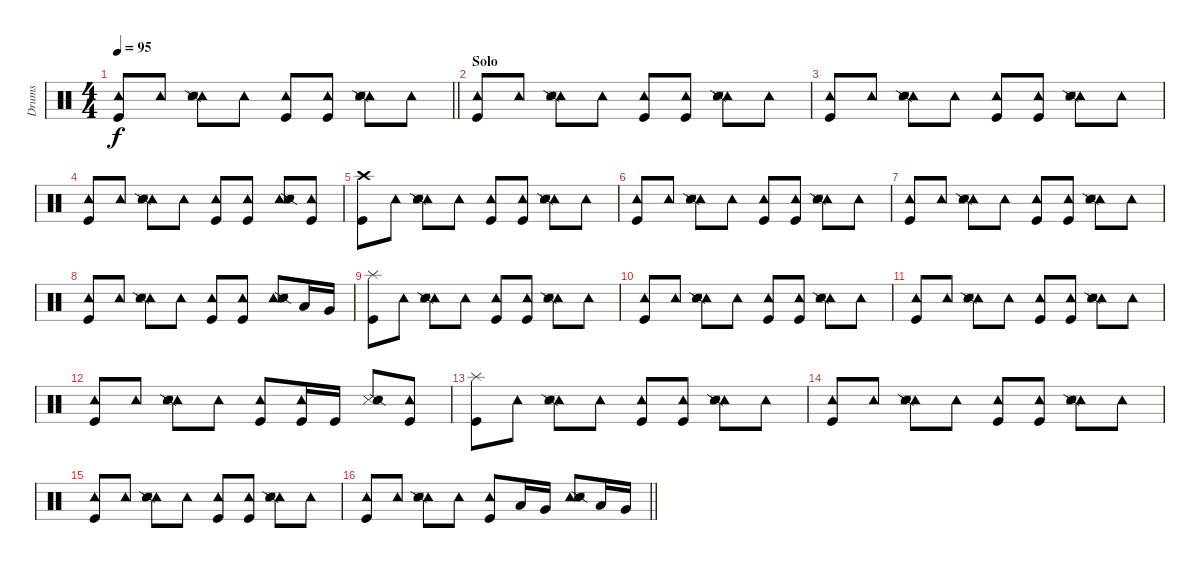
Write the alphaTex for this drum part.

\track ("Drums" "Drums") {instrument percussion}
\staff {score}
\articulation defaults
\ts (4 4)
\tempo 95
\clef neutral
\barLineRight lightlight
\ks c
("Tambourine (hit)" "Kick (hit)").8{dy f} "Tambourine (hit)".8 ("Tambourine (hit)" "Snare (side stick) 3" "Snare (side stick) 2").8 "Tambourine (hit)".8 ("Tambourine (hit)" "Kick (hit)").8 ("Tambourine (hit)" "Kick (hit)").8 ("Tambourine (hit)" "Snare (side stick) 3" "Snare (side stick) 2").8 "Tambourine (hit)".8 |
\section ("" "Solo")
("Tambourine (hit)" "Kick (hit)").8 "Tambourine (hit)".8 ("Tambourine (hit)" "Snare (side stick) 3" "Snare (side stick) 2").8 "Tambourine (hit)".8 ("Tambourine (hit)" "Kick (hit)").8 ("Tambourine (hit)" "Kick (hit)").8 ("Tambourine (hit)" "Snare (side stick) 3" "Snare (side stick) 2").8 "Tambourine (hit)".8 |
("Tambourine (hit)" "Kick (hit)").8 "Tambourine (hit)".8 ("Tambourine (hit)" "Snare (side stick) 3" "Snare (side stick) 2").8 "Tambourine (hit)".8 ("Tambourine (hit)" "Kick (hit)").8 ("Tambourine (hit)" "Kick (hit)").8 ("Tambourine (hit)" "Snare (side stick) 3" "Snare (side stick) 2").8 "Tambourine (hit)".8 |
("Tambourine (hit)" "Kick (hit)").8 "Tambourine (hit)".8 ("Tambourine (hit)" "Snare (side stick) 3" "Snare (side stick) 2").8 "Tambourine (hit)".8 ("Tambourine (hit)" "Kick (hit)").8 ("Tambourine (hit)" "Kick (hit)").8 ("Tambourine (hit)" "Snare (side stick) 3" "Snare (side stick) 2").8 ("Tambourine (hit)" "Kick (hit)").8 |
("Crash high (hit)" "Kick (hit)").8 "Tambourine (hit)".8 ("Tambourine (hit)" "Snare (side stick) 3" "Snare (side stick) 2").8 "Tambourine (hit)".8 ("Tambourine (hit)" "Kick (hit)").8 ("Tambourine (hit)" "Kick (hit)").8 ("Tambourine (hit)" "Snare (side stick) 3" "Snare (side stick) 2").8 "Tambourine (hit)".8 |
("Tambourine (hit)" "Kick (hit)").8 "Tambourine (hit)".8 ("Tambourine (hit)" "Snare (side stick) 3" "Snare (side stick) 2").8 "Tambourine (hit)".8 ("Tambourine (hit)" "Kick (hit)").8 ("Tambourine (hit)" "Kick (hit)").8 ("Tambourine (hit)" "Snare (side stick) 3" "Snare (side stick) 2").8 "Tambourine (hit)".8 |
("Tambourine (hit)" "Kick (hit)").8 "Tambourine (hit)".8 ("Tambourine (hit)" "Snare (side stick) 3" "Snare (side stick) 2").8 "Tambourine (hit)".8 ("Tambourine (hit)" "Kick (hit)").8 ("Tambourine (hit)" "Kick (hit)").8 ("Tambourine (hit)" "Snare (side stick) 3" "Snare (side stick) 2").8 "Tambourine (hit)".8 |
("Tambourine (hit)" "Kick (hit)").8 "Tambourine (hit)".8 ("Tambourine (hit)" "Snare (side stick) 3" "Snare (side stick) 2").8 "Tambourine (hit)".8 ("Tambourine (hit)" "Kick (hit)").8 ("Tambourine (hit)" "Kick (hit)").8 ("Tambourine (hit)" "Snare (side stick) 3" "Snare (side stick) 2").8 "Low Tom (hit)".16 "Very Low Tom (hit)".16 |
("Splash (hit)" "Kick (hit)").8 "Tambourine (hit)".8 ("Tambourine (hit)" "Snare (side stick) 3" "Snare (side stick) 2").8 "Tambourine (hit)".8 ("Tambourine (hit)" "Kick (hit)").8 ("Tambourine (hit)" "Kick (hit)").8 ("Tambourine (hit)" "Snare (side stick) 3" "Snare (side stick) 2").8 "Tambourine (hit)".8 |
("Tambourine (hit)" "Kick (hit)").8 "Tambourine (hit)".8 ("Tambourine (hit)" "Snare (side stick) 3" "Snare (side stick) 2").8 "Tambourine (hit)".8 ("Tambourine (hit)" "Kick (hit)").8 ("Tambourine (hit)" "Kick (hit)").8 ("Tambourine (hit)" "Snare (side stick) 3" "Snare (side stick) 2").8 "Tambourine (hit)".8 |
("Tambourine (hit)" "Kick (hit)").8 "Tambourine (hit)".8 ("Tambourine (hit)" "Snare (side stick) 3" "Snare (side stick) 2").8 "Tambourine (hit)".8 ("Tambourine (hit)" "Kick (hit)").8 ("Tambourine (hit)" "Kick (hit)").8 ("Tambourine (hit)" "Snare (side stick) 3" "Snare (side stick) 2").8 "Tambourine (hit)".8 |
("Tambourine (hit)" "Kick (hit)").8 "Tambourine (hit)".8 ("Tambourine (hit)" "Snare (side stick) 3" "Snare (side stick) 2").8 "Tambourine (hit)".8 ("Tambourine (hit)" "Kick (hit)").8 ("Tambourine (hit)" "Kick (hit)").16 "Kick (hit)".16 ("Snare (side stick) 3" "Snare (side stick) 2").8 ("Tambourine (hit)" "Kick (hit)").8 |
("Splash (hit)" "Kick (hit)").8 "Tambourine (hit)".8 ("Tambourine (hit)" "Snare (side stick) 3" "Snare (side stick) 2").8 "Tambourine (hit)".8 ("Tambourine (hit)" "Kick (hit)").8 ("Tambourine (hit)" "Kick (hit)").8 ("Tambourine (hit)" "Snare (side stick) 3" "Snare (side stick) 2").8 "Tambourine (hit)".8 |
("Tambourine (hit)" "Kick (hit)").8 "Tambourine (hit)".8 ("Tambourine (hit)" "Snare (side stick) 3" "Snare (side stick) 2").8 "Tambourine (hit)".8 ("Tambourine (hit)" "Kick (hit)").8 ("Tambourine (hit)" "Kick (hit)").8 ("Tambourine (hit)" "Snare (side stick) 3" "Snare (side stick) 2").8 "Tambourine (hit)".8 |
("Tambourine (hit)" "Kick (hit)").8 "Tambourine (hit)".8 ("Tambourine (hit)" "Snare (side stick) 3" "Snare (side stick) 2").8 "Tambourine (hit)".8 ("Tambourine (hit)" "Kick (hit)").8 ("Tambourine (hit)" "Kick (hit)").8 ("Tambourine (hit)" "Snare (side stick) 3" "Snare (side stick) 2").8 "Tambourine (hit)".8 |
\barLineRight lightlight
("Tambourine (hit)" "Kick (hit)").8 "Tambourine (hit)".8 ("Tambourine (hit)" "Snare (side stick) 3" "Snare (side stick) 2").8 "Tambourine (hit)".8 ("Tambourine (hit)" "Kick (hit)").8 "Low Tom (hit)".16 "Very Low Tom (hit)".16 ("Tambourine (hit)" "Snare (side stick) 3" "Snare (side stick) 2").8 "Low Tom (hit)".16 "Very Low Tom (hit)".16
